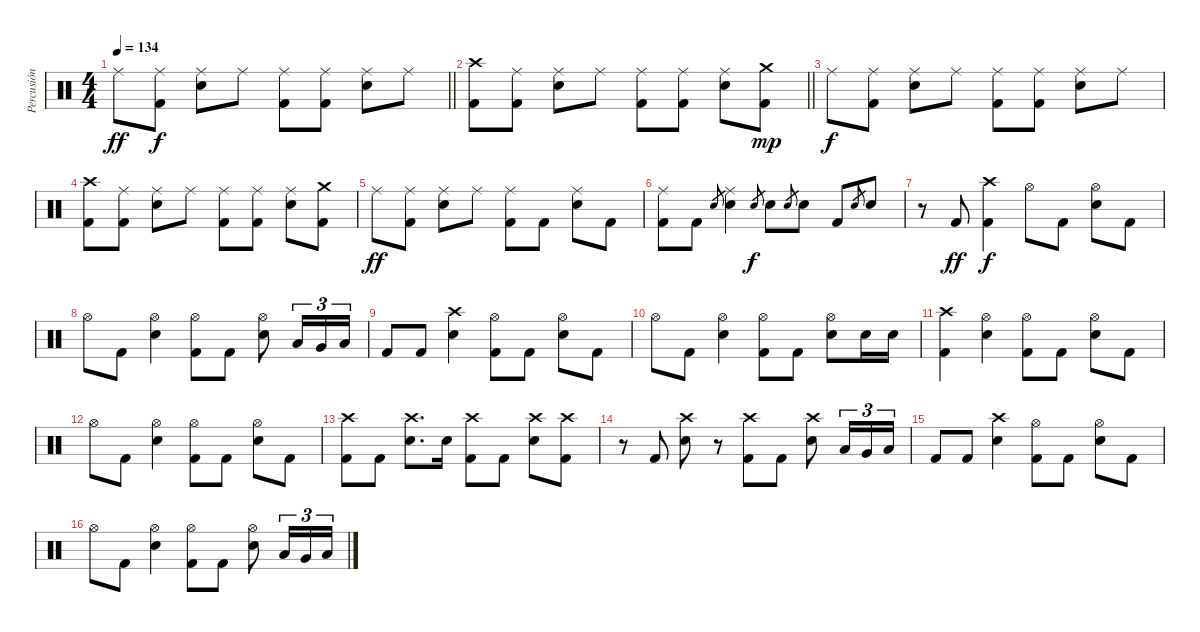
\track ("Percusión" "Percusión") {instrument percussion}
\staff {score}
\articulation defaults
\ts (4 4)
\tempo 134
\clef neutral
\barLineRight lightlight
\ks c "Ride (middle)".8{dy ff}
("Ride (middle)" "Kick (hit) 2").8{dy f} ("Ride (middle)" "Electric Snare (hit)").8 "Ride (middle)".8 ("Ride (middle)" "Kick (hit) 2").8 ("Ride (middle)" "Kick (hit) 2").8 ("Ride (middle)" "Electric Snare (hit)").8 "Ride (middle)".8 |
\barLineRight lightlight
("Crash high (hit)" "Kick (hit) 2").8 ("Ride (middle)" "Kick (hit) 2").8 ("Ride (middle)" "Electric Snare (hit)").8 "Ride (middle)".8 ("Ride (middle)" "Kick (hit) 2").8 ("Ride (middle)" "Kick (hit) 2").8 ("Ride (middle)" "Electric Snare (hit)").8 ("Crash medium (hit)" "Kick (hit) 2").8{dy mp} |
"Ride (middle)".8{dy f} ("Ride (middle)" "Kick (hit) 2").8 ("Ride (middle)" "Electric Snare (hit)").8 "Ride (middle)".8 ("Ride (middle)" "Kick (hit) 2").8 ("Ride (middle)" "Kick (hit) 2").8 ("Ride (middle)" "Electric Snare (hit)").8 "Ride (middle)".8 |
("Crash high (hit)" "Kick (hit) 2").8 ("Ride (middle)" "Kick (hit) 2").8 ("Ride (middle)" "Electric Snare (hit)").8 "Ride (middle)".8 ("Ride (middle)" "Kick (hit) 2").8 ("Ride (middle)" "Kick (hit) 2").8 ("Ride (middle)" "Electric Snare (hit)").8 ("Crash medium (hit)" "Kick (hit) 2").8 |
"Ride (middle)".8{dy ff} ("Ride (middle)" "Kick (hit) 2").8 ("Ride (middle)" "Electric Snare (hit)").8 "Ride (middle)".8 ("Ride (middle)" "Kick (hit) 2").8 "Kick (hit) 2".8 ("Ride (middle)" "Electric Snare (hit)").8 "Kick (hit) 2".8 |
("Ride (middle)" "Kick (hit) 2").8 "Kick (hit) 2".8 "Electric Snare (hit)".8{gr} ("Ride (middle)" "Electric Snare (hit)").4 "Electric Snare (hit)".8{gr dy f} "Electric Snare (hit)".8 "Electric Snare (hit)".8{gr} "Electric Snare (hit)".8 "Kick (hit) 2".8 "Electric Snare (hit)".8{gr} "Electric Snare (hit)".8 |
r.8 "Kick (hit) 2".8{dy ff} ("Crash high (hit)" "Kick (hit) 2").4{dy f} "Hi-Hat (open)".8 "Kick (hit) 2".8 ("Hi-Hat (open)" "Electric Snare (hit)").8 "Kick (hit) 2".8 |
"Hi-Hat (open)".8 "Kick (hit) 2".8 ("Hi-Hat (open)" "Electric Snare (hit)").4 ("Hi-Hat (open)" "Kick (hit) 2").8 "Kick (hit) 2".8 ("Hi-Hat (open)" "Electric Snare (hit)").8 "Low Tom (hit)".16{tu (3 2)} "Very Low Tom (hit)".16{tu (3 2)} "Low Floor Tom (hit)".16{tu (3 2)} |
"Kick (hit) 2".8 "Kick (hit) 2".8 ("Crash high (hit)" "Electric Snare (hit)").4 ("Hi-Hat (open)" "Kick (hit) 2").8 "Kick (hit) 2".8 ("Hi-Hat (open)" "Electric Snare (hit)").8 "Kick (hit) 2".8 |
"Hi-Hat (open)".8 "Kick (hit) 2".8 ("Hi-Hat (open)" "Electric Snare (hit)").4 ("Hi-Hat (open)" "Kick (hit) 2").8 "Kick (hit) 2".8 ("Hi-Hat (open)" "Electric Snare (hit)").8 "Electric Snare (hit)".16 "Electric Snare (hit)".16 |
("Crash high (hit)" "Kick (hit) 2").4 ("Hi-Hat (open)" "Electric Snare (hit)").4 ("Hi-Hat (open)" "Kick (hit) 2").8 "Kick (hit) 2".8 ("Hi-Hat (open)" "Electric Snare (hit)").8 "Kick (hit) 2".8 |
"Hi-Hat (open)".8 "Kick (hit) 2".8 ("Hi-Hat (open)" "Electric Snare (hit)").4 ("Hi-Hat (open)" "Kick (hit) 2").8 "Kick (hit) 2".8 ("Hi-Hat (open)" "Electric Snare (hit)").8 "Kick (hit) 2".8 |
("Crash high (hit)" "Kick (hit) 2").8 "Kick (hit) 2".8 ("Crash high (hit)" "Electric Snare (hit)").8{d} "Electric Snare (hit)".16 ("Crash high (hit)" "Kick (hit) 2").8 "Kick (hit) 2".8 ("Crash high (hit)" "Electric Snare (hit)").8 ("Crash high (hit)" "Kick (hit) 2").8 |
r.8 "Kick (hit) 2".8 ("Crash high (hit)" "Electric Snare (hit)").8 r.8 ("Crash high (hit)" "Kick (hit) 2").8 "Kick (hit) 2".8 ("Crash high (hit)" "Electric Snare (hit)").8 "Low Tom (hit)".16{tu (3 2)} "Very Low Tom (hit)".16{tu (3 2)} "Low Floor Tom (hit)".16{tu (3 2)} |
"Kick (hit) 2".8 "Kick (hit) 2".8 ("Crash high (hit)" "Electric Snare (hit)").4 ("Hi-Hat (open)" "Kick (hit) 2").8 "Kick (hit) 2".8 ("Hi-Hat (open)" "Electric Snare (hit)").8 "Kick (hit) 2".8 |
"Hi-Hat (open)".8 "Kick (hit) 2".8 ("Hi-Hat (open)" "Electric Snare (hit)").4 ("Hi-Hat (open)" "Kick (hit) 2").8 "Kick (hit) 2".8 ("Hi-Hat (open)" "Electric Snare (hit)").8 "Low Tom (hit)".16{tu (3 2)} "Very Low Tom (hit)".16{tu (3 2)} "Low Floor Tom (hit)".16{tu (3 2)}
